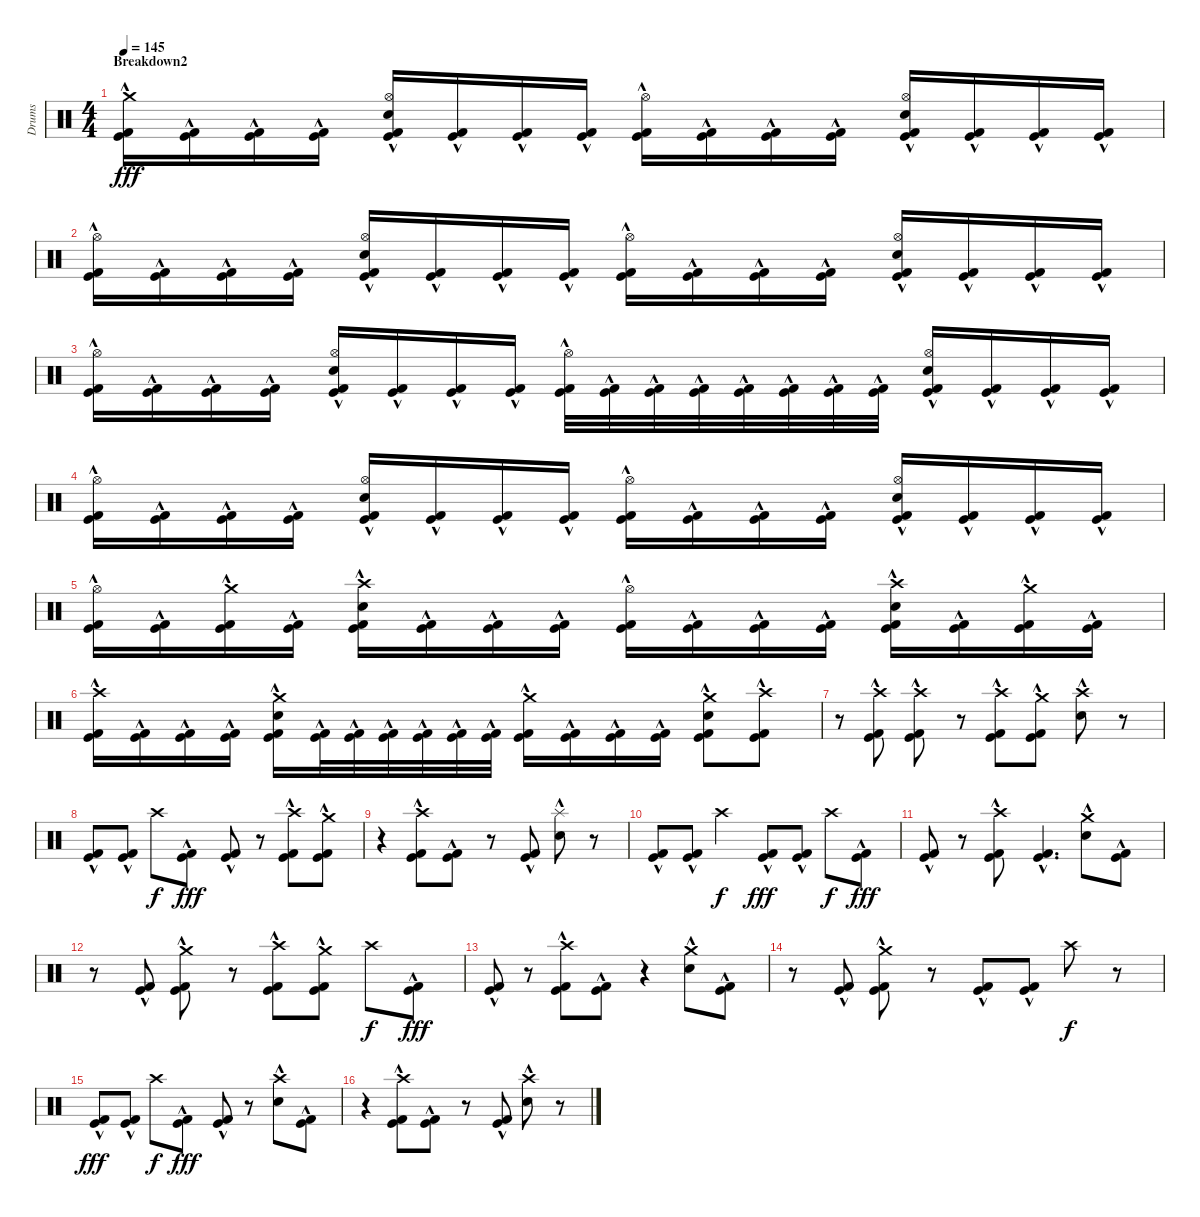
\track ("Drums" "Drums") {instrument percussion}
\staff {score}
\articulation defaults
\ts (4 4)
\section ("" "Breakdown2")
\tempo 145
\clef neutral
\ks c
("Crash medium (hit)" "Kick (hit)"{hac} "Kick (hit) 2"{hac}).16{dy fff} ("Kick (hit)"{hac} "Kick (hit) 2"{hac}).16 ("Kick (hit)"{hac} "Kick (hit) 2"{hac}).16 ("Kick (hit)"{hac} "Kick (hit) 2"{hac}).16 ("Hi-Hat (open)" "Electric Snare (hit)"{hac} "Kick (hit)"{hac} "Kick (hit) 2"{hac}).16 ("Kick (hit)"{hac} "Kick (hit) 2"{hac}).16 ("Kick (hit)"{hac} "Kick (hit) 2"{hac}).16 ("Kick (hit)"{hac} "Kick (hit) 2"{hac}).16 ("Hi-Hat (open)" "Kick (hit)"{hac} "Kick (hit) 2"{hac}).16 ("Kick (hit)"{hac} "Kick (hit) 2"{hac}).16 ("Kick (hit)"{hac} "Kick (hit) 2"{hac}).16 ("Kick (hit)"{hac} "Kick (hit) 2"{hac}).16 ("Hi-Hat (open)" "Electric Snare (hit)"{hac} "Kick (hit)"{hac} "Kick (hit) 2"{hac}).16 ("Kick (hit)"{hac} "Kick (hit) 2"{hac}).16 ("Kick (hit)"{hac} "Kick (hit) 2"{hac}).16 ("Kick (hit)"{hac} "Kick (hit) 2"{hac}).16 |
("Hi-Hat (open)" "Kick (hit)"{hac} "Kick (hit) 2"{hac}).16 ("Kick (hit)"{hac} "Kick (hit) 2"{hac}).16 ("Kick (hit)"{hac} "Kick (hit) 2"{hac}).16 ("Kick (hit)"{hac} "Kick (hit) 2"{hac}).16 ("Hi-Hat (open)" "Electric Snare (hit)"{hac} "Kick (hit)"{hac} "Kick (hit) 2"{hac}).16 ("Kick (hit)"{hac} "Kick (hit) 2"{hac}).16 ("Kick (hit)"{hac} "Kick (hit) 2"{hac}).16 ("Kick (hit)"{hac} "Kick (hit) 2"{hac}).16 ("Hi-Hat (open)" "Kick (hit)"{hac} "Kick (hit) 2"{hac}).16 ("Kick (hit)"{hac} "Kick (hit) 2"{hac}).16 ("Kick (hit)"{hac} "Kick (hit) 2"{hac}).16 ("Kick (hit)"{hac} "Kick (hit) 2"{hac}).16 ("Hi-Hat (open)" "Electric Snare (hit)"{hac} "Kick (hit)"{hac} "Kick (hit) 2"{hac}).16 ("Kick (hit)"{hac} "Kick (hit) 2"{hac}).16 ("Kick (hit)"{hac} "Kick (hit) 2"{hac}).16 ("Kick (hit)"{hac} "Kick (hit) 2"{hac}).16 |
("Hi-Hat (open)" "Kick (hit)"{hac} "Kick (hit) 2"{hac}).16 ("Kick (hit)"{hac} "Kick (hit) 2"{hac}).16 ("Kick (hit)"{hac} "Kick (hit) 2"{hac}).16 ("Kick (hit)"{hac} "Kick (hit) 2"{hac}).16 ("Hi-Hat (open)" "Electric Snare (hit)"{hac} "Kick (hit)"{hac} "Kick (hit) 2"{hac}).16 ("Kick (hit)"{hac} "Kick (hit) 2"{hac}).16 ("Kick (hit)"{hac} "Kick (hit) 2"{hac}).16 ("Kick (hit)"{hac} "Kick (hit) 2"{hac}).16 ("Hi-Hat (open)" "Kick (hit)"{hac} "Kick (hit) 2"{hac}).32 ("Kick (hit)"{hac} "Kick (hit) 2"{hac}).32 ("Kick (hit)"{hac} "Kick (hit) 2"{hac}).32 ("Kick (hit)"{hac} "Kick (hit) 2"{hac}).32 ("Kick (hit)"{hac} "Kick (hit) 2"{hac}).32 ("Kick (hit)"{hac} "Kick (hit) 2"{hac}).32 ("Kick (hit)"{hac} "Kick (hit) 2"{hac}).32 ("Kick (hit)"{hac} "Kick (hit) 2"{hac}).32 ("Hi-Hat (open)" "Electric Snare (hit)"{hac} "Kick (hit)"{hac} "Kick (hit) 2"{hac}).16 ("Kick (hit)"{hac} "Kick (hit) 2"{hac}).16 ("Kick (hit)"{hac} "Kick (hit) 2"{hac}).16 ("Kick (hit)"{hac} "Kick (hit) 2"{hac}).16 |
("Hi-Hat (open)" "Kick (hit)"{hac} "Kick (hit) 2"{hac}).16 ("Kick (hit)"{hac} "Kick (hit) 2"{hac}).16 ("Kick (hit)"{hac} "Kick (hit) 2"{hac}).16 ("Kick (hit)"{hac} "Kick (hit) 2"{hac}).16 ("Hi-Hat (open)" "Electric Snare (hit)"{hac} "Kick (hit)"{hac} "Kick (hit) 2"{hac}).16 ("Kick (hit)"{hac} "Kick (hit) 2"{hac}).16 ("Kick (hit)"{hac} "Kick (hit) 2"{hac}).16 ("Kick (hit)"{hac} "Kick (hit) 2"{hac}).16 ("Hi-Hat (open)" "Kick (hit)"{hac} "Kick (hit) 2"{hac}).16 ("Kick (hit)"{hac} "Kick (hit) 2"{hac}).16 ("Kick (hit)"{hac} "Kick (hit) 2"{hac}).16 ("Kick (hit)"{hac} "Kick (hit) 2"{hac}).16 ("Hi-Hat (open)" "Electric Snare (hit)"{hac} "Kick (hit)"{hac} "Kick (hit) 2"{hac}).16 ("Kick (hit)"{hac} "Kick (hit) 2"{hac}).16 ("Kick (hit)"{hac} "Kick (hit) 2"{hac}).16 ("Kick (hit)"{hac} "Kick (hit) 2"{hac}).16 |
("Hi-Hat (open)" "Kick (hit)"{hac} "Kick (hit) 2"{hac}).16 ("Kick (hit)"{hac} "Kick (hit) 2"{hac}).16 ("Crash medium (hit)" "Kick (hit)"{hac} "Kick (hit) 2"{hac}).16 ("Kick (hit)"{hac} "Kick (hit) 2"{hac}).16 ("Crash high (hit)" "Electric Snare (hit)"{hac} "Kick (hit)"{hac} "Kick (hit) 2"{hac}).16 ("Kick (hit)"{hac} "Kick (hit) 2"{hac}).16 ("Kick (hit)"{hac} "Kick (hit) 2"{hac}).16 ("Kick (hit)"{hac} "Kick (hit) 2"{hac}).16 ("Hi-Hat (open)" "Kick (hit)"{hac} "Kick (hit) 2"{hac}).16 ("Kick (hit)"{hac} "Kick (hit) 2"{hac}).16 ("Kick (hit)"{hac} "Kick (hit) 2"{hac}).16 ("Kick (hit)"{hac} "Kick (hit) 2"{hac}).16 ("Crash high (hit)" "Electric Snare (hit)"{hac} "Kick (hit)"{hac} "Kick (hit) 2"{hac}).16 ("Kick (hit)"{hac} "Kick (hit) 2"{hac}).16 ("Crash medium (hit)" "Kick (hit)"{hac} "Kick (hit) 2"{hac}).16 ("Kick (hit)"{hac} "Kick (hit) 2"{hac}).16 |
("Crash high (hit)" "Kick (hit)"{hac} "Kick (hit) 2"{hac}).16 ("Kick (hit)"{hac} "Kick (hit) 2"{hac}).16 ("Kick (hit)"{hac} "Kick (hit) 2"{hac}).16 ("Kick (hit)"{hac} "Kick (hit) 2"{hac}).16 ("Crash medium (hit)" "Electric Snare (hit)"{hac} "Kick (hit)"{hac} "Kick (hit) 2"{hac}).16 ("Kick (hit)"{hac} "Kick (hit) 2"{hac}).32 ("Kick (hit)"{hac} "Kick (hit) 2"{hac}).32 ("Kick (hit)"{hac} "Kick (hit) 2"{hac}).32 ("Kick (hit)"{hac} "Kick (hit) 2"{hac}).32 ("Kick (hit)"{hac} "Kick (hit) 2"{hac}).32 ("Kick (hit)"{hac} "Kick (hit) 2"{hac}).32 ("Crash medium (hit)" "Kick (hit)"{hac} "Kick (hit) 2"{hac}).16 ("Kick (hit)"{hac} "Kick (hit) 2"{hac}).16 ("Kick (hit)"{hac} "Kick (hit) 2"{hac}).16 ("Kick (hit)"{hac} "Kick (hit) 2"{hac}).16 ("Crash medium (hit)" "Electric Snare (hit)"{hac} "Kick (hit)"{hac} "Kick (hit) 2"{hac}).8 ("Crash high (hit)" "Kick (hit)"{hac} "Kick (hit) 2"{hac}).8 |
r.8 ("Crash high (hit)" "Kick (hit)"{hac} "Kick (hit) 2"{hac}).8 ("Crash high (hit)" "Kick (hit)"{hac} "Kick (hit) 2"{hac}).8 r.8 ("Crash high (hit)" "Kick (hit)"{hac} "Kick (hit) 2"{hac}).8 ("Crash medium (hit)" "Kick (hit)"{hac} "Kick (hit) 2"{hac}).8 ("Crash high (hit)" "Electric Snare (hit)"{hac}).8 r.8 |
("Kick (hit)"{hac} "Kick (hit) 2"{hac}).8 ("Kick (hit)"{hac} "Kick (hit) 2"{hac}).8 "Crash high (hit)".8{dy f} ("Kick (hit)"{hac} "Kick (hit) 2"{hac}).8{dy fff} ("Kick (hit)"{hac} "Kick (hit) 2"{hac}).8 r.8 ("Crash high (hit)" "Kick (hit)"{hac} "Kick (hit) 2"{hac}).8 ("Crash medium (hit)" "Kick (hit)"{hac} "Kick (hit) 2"{hac}).8 |
r.4 ("Crash high (hit)" "Kick (hit)"{hac} "Kick (hit) 2"{hac}).8 ("Kick (hit)"{hac} "Kick (hit) 2"{hac}).8 r.8 ("Kick (hit)" "Kick (hit) 2"{hac}).8 ("Splash (hit)" "Electric Snare (hit)"{hac}).8 r.8 |
("Kick (hit)"{hac} "Kick (hit) 2"{hac}).8 ("Kick (hit)"{hac} "Kick (hit) 2"{hac}).8 "Crash high (hit)".4{dy f} ("Kick (hit)"{hac} "Kick (hit) 2"{hac}).8{dy fff} ("Kick (hit)"{hac} "Kick (hit) 2"{hac}).8 "Crash high (hit)".8{dy f} ("Kick (hit)"{hac} "Kick (hit) 2"{hac}).8{dy fff} |
("Kick (hit)"{hac} "Kick (hit) 2"{hac}).8 r.8 ("Crash high (hit)" "Kick (hit)"{hac} "Kick (hit) 2").8 ("Kick (hit)"{hac} "Kick (hit) 2"{hac}).4{d} ("Crash medium (hit)" "Electric Snare (hit)"{hac}).8 ("Kick (hit)"{hac} "Kick (hit) 2"{hac}).8 |
r.8 ("Kick (hit)"{hac} "Kick (hit) 2"{hac}).8 ("Crash medium (hit)" "Kick (hit)"{hac} "Kick (hit) 2"{hac}).8 r.8 ("Crash high (hit)" "Kick (hit)"{hac} "Kick (hit) 2"{hac}).8 ("Crash medium (hit)" "Kick (hit)"{hac} "Kick (hit) 2"{hac}).8 "Crash high (hit)".8{dy f} ("Kick (hit)"{hac} "Kick (hit) 2"{hac}).8{dy fff} |
("Kick (hit)"{hac} "Kick (hit) 2"{hac}).8 r.8 ("Crash high (hit)" "Kick (hit)"{hac} "Kick (hit) 2"{hac}).8 ("Kick (hit)"{hac} "Kick (hit) 2"{hac}).8 r.4 ("Crash medium (hit)" "Electric Snare (hit)"{hac}).8 ("Kick (hit)"{hac} "Kick (hit) 2"{hac}).8 |
r.8 ("Kick (hit)"{hac} "Kick (hit) 2"{hac}).8 ("Crash medium (hit)" "Kick (hit)"{hac} "Kick (hit) 2"{hac}).8 r.8 ("Kick (hit)"{hac} "Kick (hit) 2"{hac}).8 ("Kick (hit)"{hac} "Kick (hit) 2"{hac}).8 "Crash high (hit)".8{dy f} r.8 |
("Kick (hit)"{hac} "Kick (hit) 2"{hac}).8{dy fff} ("Kick (hit)"{hac} "Kick (hit) 2"{hac}).8 "Crash high (hit)".8{dy f} ("Kick (hit)"{hac} "Kick (hit) 2"{hac}).8{dy fff} ("Kick (hit)"{hac} "Kick (hit) 2"{hac}).8 r.8 ("Crash high (hit)" "Electric Snare (hit)"{hac}).8 ("Kick (hit)"{hac} "Kick (hit) 2"{hac}).8 |
r.4 ("Crash high (hit)" "Kick (hit)"{hac} "Kick (hit) 2"{hac}).8 ("Kick (hit)"{hac} "Kick (hit) 2"{hac}).8 r.8 ("Kick (hit)"{hac} "Kick (hit) 2"{hac}).8 ("Crash high (hit)" "Electric Snare (hit)"{hac}).8 r.8
